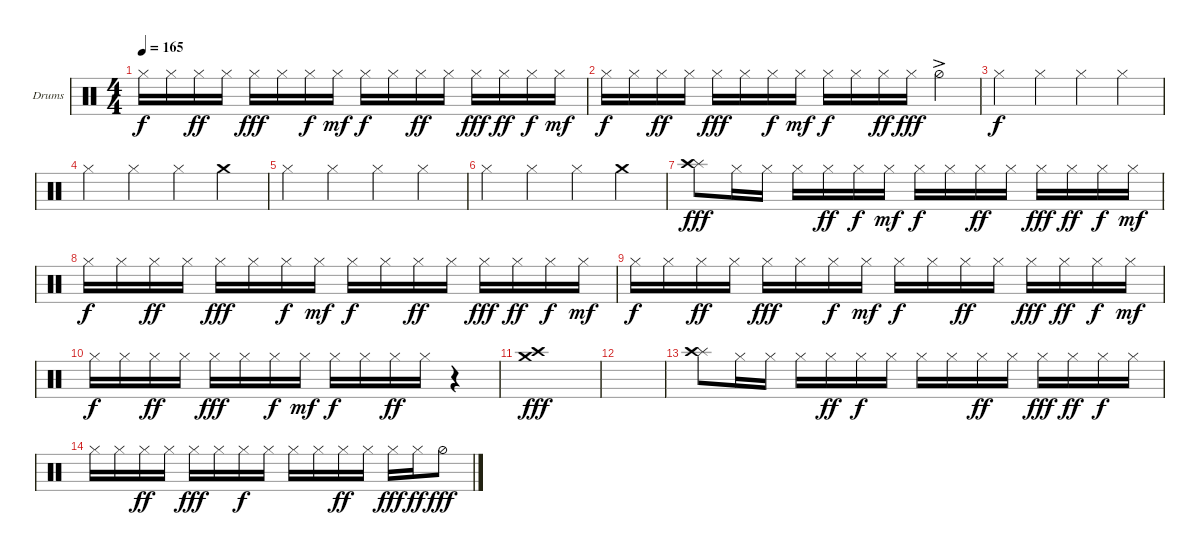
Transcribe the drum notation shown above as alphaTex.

\defaultSystemsLayout 4
\bracketExtendMode groupsimilarinstruments
\firstSystemTrackNameOrientation horizontal
\otherSystemsTrackNameOrientation horizontal
\track ("Helders" "Drums") {instrument percussion}
\staff {score}
\articulation defaults
\ts (4 4)
\tempo 165
\clef neutral
\ks c "Hi-Hat (closed)".16{dy f} "Hi-Hat (closed)".16 "Hi-Hat (closed)".16{dy ff} "Hi-Hat (closed)".16 "Hi-Hat (closed)".16{dy fff} "Hi-Hat (closed)".16 "Hi-Hat (closed)".16{dy f} "Hi-Hat (closed)".16{dy mf} "Hi-Hat (closed)".16{dy f} "Hi-Hat (closed)".16 "Hi-Hat (closed)".16{dy ff} "Hi-Hat (closed)".16 "Hi-Hat (closed)".16{dy fff} "Hi-Hat (closed)".16{dy ff} "Hi-Hat (closed)".16{dy f} "Hi-Hat (closed)".16{dy mf}
|
"Hi-Hat (closed)".16{dy f} "Hi-Hat (closed)".16 "Hi-Hat (closed)".16{dy ff} "Hi-Hat (closed)".16 "Hi-Hat (closed)".16{dy fff} "Hi-Hat (closed)".16 "Hi-Hat (closed)".16{dy f} "Hi-Hat (closed)".16{dy mf} "Hi-Hat (closed)".16{dy f} "Hi-Hat (closed)".16 "Hi-Hat (closed)".16{dy ff} "Hi-Hat (closed)".16{dy fff} "Hi-Hat (half)"{ac}.4 |
"Hi-Hat (closed)".4{dy f} "Hi-Hat (closed)".4 "Hi-Hat (closed)".4 "Hi-Hat (closed)".4 |
"Hi-Hat (closed)".4 "Hi-Hat (closed)".4 "Hi-Hat (closed)".4 "Crash medium (hit)".4 |
"Hi-Hat (closed)".4 "Hi-Hat (closed)".4 "Hi-Hat (closed)".4 "Hi-Hat (closed)".4 |
"Hi-Hat (closed)".4 "Hi-Hat (closed)".4 "Hi-Hat (closed)".4 "Crash medium (hit)".4 |
("Splash (hit)" "Crash high (hit)").8{dy fff} "Hi-Hat (closed)".16 "Hi-Hat (closed)".16 "Hi-Hat (closed)".16 "Hi-Hat (closed)".16{dy ff} "Hi-Hat (closed)".16{dy f} "Hi-Hat (closed)".16{dy mf} "Hi-Hat (closed)".16{dy f} "Hi-Hat (closed)".16 "Hi-Hat (closed)".16{dy ff} "Hi-Hat (closed)".16 "Hi-Hat (closed)".16{dy fff} "Hi-Hat (closed)".16{dy ff} "Hi-Hat (closed)".16{dy f} "Hi-Hat (closed)".16{dy mf} |
"Hi-Hat (closed)".16{dy f} "Hi-Hat (closed)".16 "Hi-Hat (closed)".16{dy ff} "Hi-Hat (closed)".16 "Hi-Hat (closed)".16{dy fff} "Hi-Hat (closed)".16 "Hi-Hat (closed)".16{dy f} "Hi-Hat (closed)".16{dy mf} "Hi-Hat (closed)".16{dy f} "Hi-Hat (closed)".16 "Hi-Hat (closed)".16{dy ff} "Hi-Hat (closed)".16 "Hi-Hat (closed)".16{dy fff} "Hi-Hat (closed)".16{dy ff} "Hi-Hat (closed)".16{dy f} "Hi-Hat (closed)".16{dy mf} |
"Hi-Hat (closed)".16{dy f} "Hi-Hat (closed)".16 "Hi-Hat (closed)".16{dy ff} "Hi-Hat (closed)".16 "Hi-Hat (closed)".16{dy fff} "Hi-Hat (closed)".16 "Hi-Hat (closed)".16{dy f} "Hi-Hat (closed)".16{dy mf} "Hi-Hat (closed)".16{dy f} "Hi-Hat (closed)".16 "Hi-Hat (closed)".16{dy ff} "Hi-Hat (closed)".16 "Hi-Hat (closed)".16{dy fff} "Hi-Hat (closed)".16{dy ff} "Hi-Hat (closed)".16{dy f} "Hi-Hat (closed)".16{dy mf} |
"Hi-Hat (closed)".16{dy f} "Hi-Hat (closed)".16 "Hi-Hat (closed)".16{dy ff} "Hi-Hat (closed)".16 "Hi-Hat (closed)".16{dy fff} "Hi-Hat (closed)".16 "Hi-Hat (closed)".16{dy f} "Hi-Hat (closed)".16{dy mf} "Hi-Hat (closed)".16{dy f} "Hi-Hat (closed)".16 "Hi-Hat (closed)".16{dy ff} "Hi-Hat (closed)".16 r.4 |
("Crash high (hit)" "Crash medium (hit)").1{dy fff} |
|
("Splash (hit)" "Crash high (hit)").8 "Hi-Hat (closed)".16 "Hi-Hat (closed)".16 "Hi-Hat (closed)".16 "Hi-Hat (closed)".16{dy ff} "Hi-Hat (closed)".16{dy f} "Hi-Hat (closed)".16 "Hi-Hat (closed)".16 "Hi-Hat (closed)".16 "Hi-Hat (closed)".16{dy ff} "Hi-Hat (closed)".16 "Hi-Hat (closed)".16{dy fff} "Hi-Hat (closed)".16{dy ff} "Hi-Hat (closed)".16{dy f} "Hi-Hat (closed)".16 |
"Hi-Hat (closed)".16 "Hi-Hat (closed)".16 "Hi-Hat (closed)".16{dy ff} "Hi-Hat (closed)".16 "Hi-Hat (closed)".16{dy fff} "Hi-Hat (closed)".16 "Hi-Hat (closed)".16{dy f} "Hi-Hat (closed)".16 "Hi-Hat (closed)".16 "Hi-Hat (closed)".16 "Hi-Hat (closed)".16{dy ff} "Hi-Hat (closed)".16 "Hi-Hat (closed)".16{dy fff} "Hi-Hat (closed)".16{dy ff} "Hi-Hat (half)".8{dy fff}
